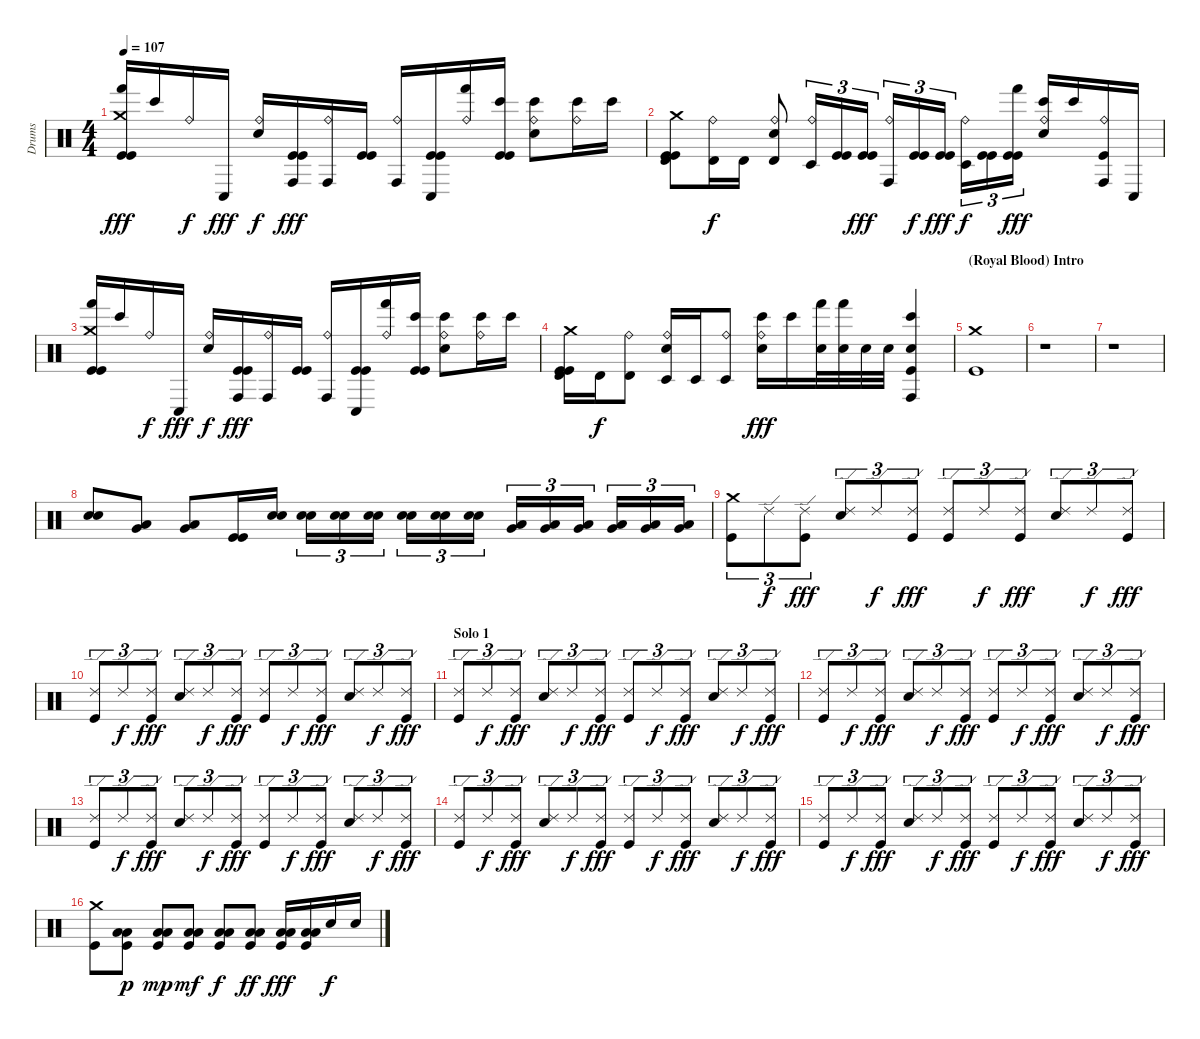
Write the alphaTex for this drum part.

\track ("Drums" "Drums") {instrument percussion}
\staff {score}
\articulation defaults
\ts (4 4)
\tempo 107
\clef neutral
\ks c
("Crash medium (hit)" "Hand (hit)" "Kick (hit)" "Kick (hit)").16{dy fff} "Bongo High (hit)".16 "Ride (bell)".16{dy f} "Conga low (hit)".16{dy fff} ("Ride (bell)" "Electric Snare (hit)").16{dy f} ("Conga high (hit)" "Kick (hit)" "Kick (hit)").16{dy fff} ("Ride (bell)" "Conga high (hit)").16 ("Kick (hit)" "Kick (hit)").16 ("Ride (bell)" "Conga high (hit)").16 ("Conga low (hit)" "Kick (hit)" "Kick (hit)").16 ("Ride (bell)" "Hand (hit)").16 ("Bongo High (hit)" "Kick (hit)" "Kick (hit)").16 ("Ride (bell)" "Bongo High (hit)" "Electric Snare (hit)").8 ("Ride (bell)" "Bongo High (hit)").16 "Bongo High (hit)".16 |
("Crash medium (hit)" "Timbale high (hit)" "Kick (hit)" "Kick (hit)").8 ("Ride (bell)" "Timbale high (hit)").16{dy f} "Timbale high (hit)".16 ("Ride (bell)" "Timbale high (hit)" "Electric Snare (hit)").8 ("Ride (bell)" "Timbale low (hit)").16{tu (3 2)} ("Kick (hit)" "Kick (hit)").16{tu (3 2)} ("Kick (hit)" "Kick (hit)").16{tu (3 2) dy fff} ("Ride (bell)" "Conga high (hit)").16{tu (3 2)} ("Kick (hit)" "Kick (hit)").16{tu (3 2) dy f} ("Kick (hit)" "Kick (hit)").16{tu (3 2) dy fff} ("Ride (bell)" "Timbale low (hit)").16{tu (3 2) dy f} ("Kick (hit)" "Kick (hit)").16{tu (3 2)} ("Hand (hit)" "Kick (hit)" "Kick (hit)").16{tu (3 2) dy fff} ("Ride (bell)" "Bongo High (hit)" "Electric Snare (hit)").16 "Bongo High (hit)".16 ("Ride (bell)" "Conga high (hit)" "Kick (hit)").16 "Conga low (hit)".16 |
("Crash medium (hit)" "Hand (hit)" "Kick (hit)" "Kick (hit)").16 "Bongo High (hit)".16 "Ride (bell)".16{dy f} "Conga low (hit)".16{dy fff} ("Ride (bell)" "Electric Snare (hit)").16{dy f} ("Conga high (hit)" "Kick (hit)" "Kick (hit)").16{dy fff} ("Ride (bell)" "Conga high (hit)").16 ("Kick (hit)" "Kick (hit)").16 ("Ride (bell)" "Conga high (hit)").16 ("Conga low (hit)" "Kick (hit)" "Kick (hit)").16 ("Ride (bell)" "Hand (hit)").16 ("Bongo High (hit)" "Kick (hit)" "Kick (hit)").16 ("Ride (bell)" "Bongo High (hit)" "Electric Snare (hit)").8 ("Ride (bell)" "Bongo High (hit)").16 "Bongo High (hit)".16 |
("Crash medium (hit)" "Timbale high (hit)" "Kick (hit)" "Kick (hit)").16 "Timbale high (hit)".16{dy f} ("Ride (bell)" "Timbale high (hit)").8 ("Ride (bell)" "Timbale low (hit)" "Electric Snare (hit)").16 "Timbale low (hit)".16 ("Ride (bell)" "Timbale low (hit)").8 ("Ride (bell)" "Bongo High (hit)" "Electric Snare (hit)").16{dy fff} "Bongo High (hit)".16 ("Hand (hit)" "Electric Snare (hit)").32 ("Hand (hit)" "Electric Snare (hit)").32 "Electric Snare (hit)".32 "Electric Snare (hit)".32 ("Conga high (hit)" "Bongo High (hit)" "Electric Snare (hit)" "Kick (hit)").4 |
\section ("" "(Royal Blood) Intro")
("Crash medium (hit)" "Kick (hit)").1 |
r.1 |
r.1 |
("Electric Snare (hit)" "Snare (hit) 2").8{volume 16} ("Low Tom (hit)" "Very Low Tom (hit)").8 ("Very Low Tom (hit)" "Low Floor Tom (hit)").8 ("Kick (hit)" "Kick (hit)").16 ("Electric Snare (hit)" "Snare (hit) 2").16 ("Electric Snare (hit)" "Snare (hit) 2").16{tu (3 2)} ("Electric Snare (hit)" "Snare (hit) 2").16{tu (3 2)} ("Electric Snare (hit)" "Snare (hit) 2").16{tu (3 2)} ("Electric Snare (hit)" "Snare (hit) 2").16{tu (3 2)} ("Electric Snare (hit)" "Snare (hit) 2").16{tu (3 2)} ("Electric Snare (hit)" "Snare (hit) 2").16{tu (3 2)} ("Very Low Tom (hit)" "Low Floor Tom (hit)").16{tu (3 2)} ("Very Low Tom (hit)" "Low Floor Tom (hit)").16{tu (3 2)} ("Very Low Tom (hit)" "Low Floor Tom (hit)").16{tu (3 2)} ("Very Low Tom (hit)" "Low Floor Tom (hit)").16{tu (3 2)} ("Very Low Tom (hit)" "Low Floor Tom (hit)").16{tu (3 2)} ("Very Low Tom (hit)" "Low Floor Tom (hit)").16{tu (3 2)} |
("Crash medium (hit)" "Kick (hit)").8{tu (3 2) volume 14} "Ride (edge) 2".8{tu (3 2) dy f} ("Ride (edge) 2" "Kick (hit)").8{tu (3 2) dy fff} ("Ride (edge) 2" "Electric Snare (hit)").8{tu (3 2)} "Ride (edge) 2".8{tu (3 2) dy f} ("Ride (edge) 2" "Kick (hit)").8{tu (3 2) dy fff} ("Ride (edge) 2" "Kick (hit)").8{tu (3 2)} "Ride (edge) 2".8{tu (3 2) dy f} ("Ride (edge) 2" "Kick (hit)").8{tu (3 2) dy fff} ("Ride (edge) 2" "Electric Snare (hit)").8{tu (3 2)} "Ride (edge) 2".8{tu (3 2) dy f} ("Ride (edge) 2" "Kick (hit)").8{tu (3 2) dy fff} |
("Ride (edge) 2" "Kick (hit)").8{tu (3 2)} "Ride (edge) 2".8{tu (3 2) dy f} ("Ride (edge) 2" "Kick (hit)").8{tu (3 2) dy fff} ("Ride (edge) 2" "Electric Snare (hit)").8{tu (3 2)} "Ride (edge) 2".8{tu (3 2) dy f} ("Ride (edge) 2" "Kick (hit)").8{tu (3 2) dy fff} ("Ride (edge) 2" "Kick (hit)").8{tu (3 2)} "Ride (edge) 2".8{tu (3 2) dy f} ("Ride (edge) 2" "Kick (hit)").8{tu (3 2) dy fff} ("Ride (edge) 2" "Electric Snare (hit)").8{tu (3 2)} "Ride (edge) 2".8{tu (3 2) dy f} ("Ride (edge) 2" "Kick (hit)").8{tu (3 2) dy fff} |
\section ("" "Solo 1")
("Ride (edge) 2" "Kick (hit)").8{tu (3 2)} "Ride (edge) 2".8{tu (3 2) dy f} ("Ride (edge) 2" "Kick (hit)").8{tu (3 2) dy fff} ("Ride (edge) 2" "Electric Snare (hit)").8{tu (3 2)} "Ride (edge) 2".8{tu (3 2) dy f} ("Ride (edge) 2" "Kick (hit)").8{tu (3 2) dy fff} ("Ride (edge) 2" "Kick (hit)").8{tu (3 2)} "Ride (edge) 2".8{tu (3 2) dy f} ("Ride (edge) 2" "Kick (hit)").8{tu (3 2) dy fff} ("Ride (edge) 2" "Electric Snare (hit)").8{tu (3 2)} "Ride (edge) 2".8{tu (3 2) dy f} ("Ride (edge) 2" "Kick (hit)").8{tu (3 2) dy fff} |
("Ride (edge) 2" "Kick (hit)").8{tu (3 2)} "Ride (edge) 2".8{tu (3 2) dy f} ("Ride (edge) 2" "Kick (hit)").8{tu (3 2) dy fff} ("Ride (edge) 2" "Electric Snare (hit)").8{tu (3 2)} "Ride (edge) 2".8{tu (3 2) dy f} ("Ride (edge) 2" "Kick (hit)").8{tu (3 2) dy fff} ("Ride (edge) 2" "Kick (hit)").8{tu (3 2)} "Ride (edge) 2".8{tu (3 2) dy f} ("Ride (edge) 2" "Kick (hit)").8{tu (3 2) dy fff} ("Ride (edge) 2" "Electric Snare (hit)").8{tu (3 2)} "Ride (edge) 2".8{tu (3 2) dy f} ("Ride (edge) 2" "Kick (hit)").8{tu (3 2) dy fff} |
("Ride (edge) 2" "Kick (hit)").8{tu (3 2)} "Ride (edge) 2".8{tu (3 2) dy f} ("Ride (edge) 2" "Kick (hit)").8{tu (3 2) dy fff} ("Ride (edge) 2" "Electric Snare (hit)").8{tu (3 2)} "Ride (edge) 2".8{tu (3 2) dy f} ("Ride (edge) 2" "Kick (hit)").8{tu (3 2) dy fff} ("Ride (edge) 2" "Kick (hit)").8{tu (3 2)} "Ride (edge) 2".8{tu (3 2) dy f} ("Ride (edge) 2" "Kick (hit)").8{tu (3 2) dy fff} ("Ride (edge) 2" "Electric Snare (hit)").8{tu (3 2)} "Ride (edge) 2".8{tu (3 2) dy f} ("Ride (edge) 2" "Kick (hit)").8{tu (3 2) dy fff} |
("Ride (edge) 2" "Kick (hit)").8{tu (3 2)} "Ride (edge) 2".8{tu (3 2) dy f} ("Ride (edge) 2" "Kick (hit)").8{tu (3 2) dy fff} ("Ride (edge) 2" "Electric Snare (hit)").8{tu (3 2)} "Ride (edge) 2".8{tu (3 2) dy f} ("Ride (edge) 2" "Kick (hit)").8{tu (3 2) dy fff} ("Ride (edge) 2" "Kick (hit)").8{tu (3 2)} "Ride (edge) 2".8{tu (3 2) dy f} ("Ride (edge) 2" "Kick (hit)").8{tu (3 2) dy fff} ("Ride (edge) 2" "Electric Snare (hit)").8{tu (3 2)} "Ride (edge) 2".8{tu (3 2) dy f} ("Ride (edge) 2" "Kick (hit)").8{tu (3 2) dy fff} |
("Ride (edge) 2" "Kick (hit)").8{tu (3 2)} "Ride (edge) 2".8{tu (3 2) dy f} ("Ride (edge) 2" "Kick (hit)").8{tu (3 2) dy fff} ("Ride (edge) 2" "Electric Snare (hit)").8{tu (3 2)} "Ride (edge) 2".8{tu (3 2) dy f} ("Ride (edge) 2" "Kick (hit)").8{tu (3 2) dy fff} ("Ride (edge) 2" "Kick (hit)").8{tu (3 2)} "Ride (edge) 2".8{tu (3 2) dy f} ("Ride (edge) 2" "Kick (hit)").8{tu (3 2) dy fff} ("Ride (edge) 2" "Electric Snare (hit)").8{tu (3 2)} "Ride (edge) 2".8{tu (3 2) dy f} ("Ride (edge) 2" "Kick (hit)").8{tu (3 2) dy fff} |
("Crash medium (hit)" "Kick (hit)").8 ("Low Floor Tom (hit)" "Low Tom (hit)" "Kick (hit)").8{dy p} ("Low Floor Tom (hit)" "Low Tom (hit)" "Kick (hit)").8{dy mp} ("Low Floor Tom (hit)" "Low Tom (hit)" "Kick (hit)").8{dy mf} ("Low Floor Tom (hit)" "Low Tom (hit)" "Kick (hit)").8{dy f} ("Low Floor Tom (hit)" "Low Tom (hit)" "Kick (hit)").8{dy ff} ("Low Floor Tom (hit)" "Low Tom (hit)" "Kick (hit)").16{dy fff} ("Low Floor Tom (hit)" "Low Tom (hit)" "Kick (hit)").16 "Electric Snare (hit)".16{dy f} "Electric Snare (hit)".16
